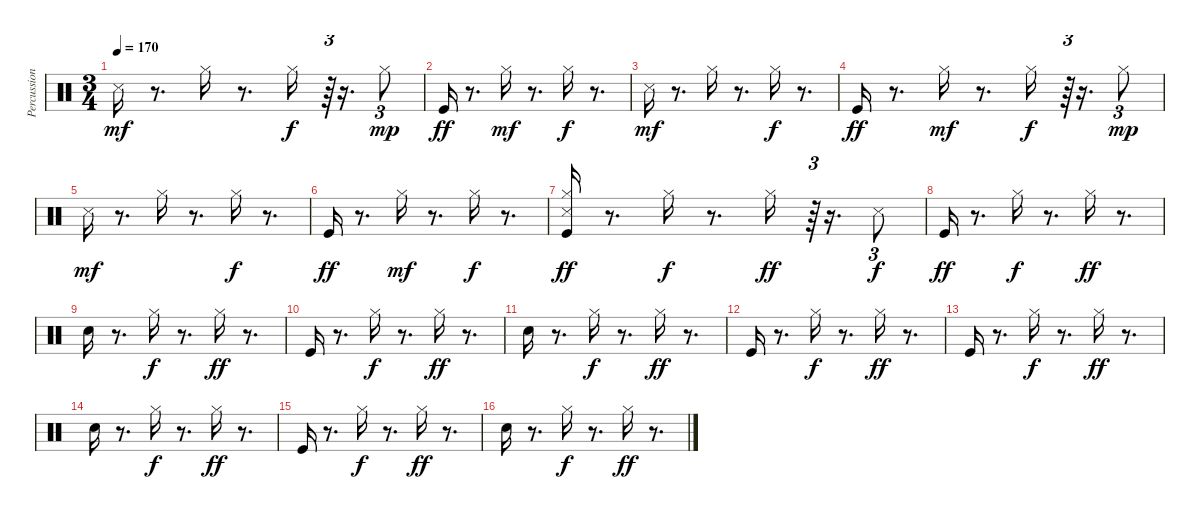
\track ("Percussion" "Percussion") {instrument percussion}
\staff {score}
\articulation defaults
\ts (3 4)
\tempo 170
\clef neutral
\ks c "Snare (side stick) 3".16{dy mf}
r.8{d} "Hi-Hat (closed)".16 r.8{d} "Hi-Hat (closed)".16{dy f} r.64{tu (3 2)} r.16{d} "Hi-Hat (closed)".8{tu (3 2) dy mp} |
"Kick (hit)".16{dy ff} r.8{d} "Hi-Hat (closed)".16{dy mf} r.8{d} "Hi-Hat (closed)".16{dy f} r.8{d} |
"Snare (side stick) 3".16{dy mf} r.8{d} "Hi-Hat (closed)".16 r.8{d} "Hi-Hat (closed)".16{dy f} r.8{d} |
"Kick (hit)".16{dy ff} r.8{d} "Hi-Hat (closed)".16{dy mf} r.8{d} "Hi-Hat (closed)".16{dy f} r.64{tu (3 2)} r.16{d} "Hi-Hat (closed)".8{tu (3 2) dy mp} |
"Snare (side stick) 3".16{dy mf} r.8{d} "Hi-Hat (closed)".16 r.8{d} "Hi-Hat (closed)".16{dy f} r.8{d} |
"Kick (hit)".16{dy ff} r.8{d} "Hi-Hat (closed)".16{dy mf} r.8{d} "Hi-Hat (closed)".16{dy f} r.8{d} |
("Kick (hit)" "Hi-Hat (closed)" "Snare (side stick) 3").16{dy ff} r.8{d} "Hi-Hat (closed)".16{dy f} r.8{d} "Hi-Hat (closed)".16{dy ff} r.64{tu (3 2)} r.16{d} "Snare (side stick) 3".8{tu (3 2) dy f} |
"Kick (hit)".16{dy ff} r.8{d} "Hi-Hat (closed)".16{dy f} r.8{d} "Hi-Hat (closed)".16{dy ff} r.8{d} |
"Snare (hit) 2".16 r.8{d} "Hi-Hat (closed)".16{dy f} r.8{d} "Hi-Hat (closed)".16{dy ff} r.8{d} |
"Kick (hit)".16 r.8{d} "Hi-Hat (closed)".16{dy f} r.8{d} "Hi-Hat (closed)".16{dy ff} r.8{d} |
"Snare (hit) 2".16 r.8{d} "Hi-Hat (closed)".16{dy f} r.8{d} "Hi-Hat (closed)".16{dy ff} r.8{d} |
"Kick (hit)".16 r.8{d} "Hi-Hat (closed)".16{dy f} r.8{d} "Hi-Hat (closed)".16{dy ff} r.8{d} |
"Kick (hit)".16 r.8{d} "Hi-Hat (closed)".16{dy f} r.8{d} "Hi-Hat (closed)".16{dy ff} r.8{d} |
"Snare (hit) 2".16 r.8{d} "Hi-Hat (closed)".16{dy f} r.8{d} "Hi-Hat (closed)".16{dy ff} r.8{d} |
"Kick (hit)".16 r.8{d} "Hi-Hat (closed)".16{dy f} r.8{d} "Hi-Hat (closed)".16{dy ff} r.8{d} |
"Snare (hit) 2".16 r.8{d} "Hi-Hat (closed)".16{dy f} r.8{d} "Hi-Hat (closed)".16{dy ff} r.8{d}
